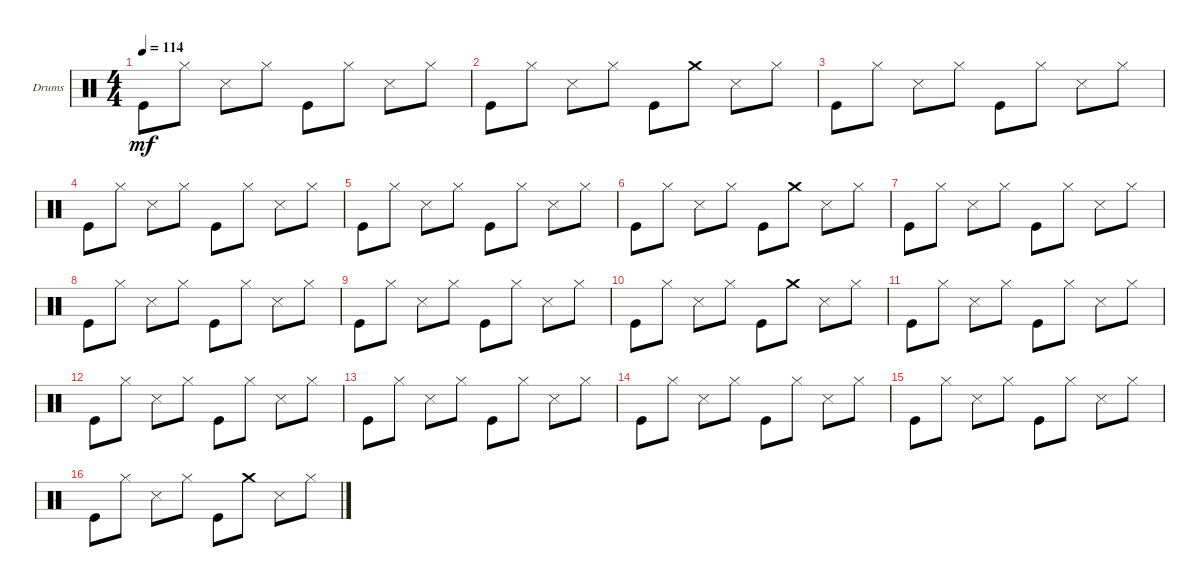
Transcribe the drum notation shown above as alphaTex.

\defaultSystemsLayout 4
\bracketExtendMode groupsimilarinstruments
\firstSystemTrackNameOrientation horizontal
\otherSystemsTrackNameOrientation horizontal
\track ("Drumkit" "Drums") {instrument percussion}
\staff {score}
\articulation defaults
\ts (4 4)
\tempo 114
\clef neutral
\scale
0.333333
\ks c "Kick (hit)".8{dy mf} "Hi-Hat (closed)".8 "Snare (side stick) 3".8 "Hi-Hat (closed)".8 "Kick (hit)".8 "Hi-Hat (closed)".8 "Snare (side stick) 3".8 "Hi-Hat (closed)".8
|
"Kick (hit)".8 "Hi-Hat (closed)".8 "Snare (side stick) 3".8 "Hi-Hat (closed)".8 "Kick (hit)".8 "Crash medium (hit)".8 "Snare (side stick) 3".8 "Hi-Hat (closed)".8 |
"Kick (hit)".8 "Hi-Hat (closed)".8 "Snare (side stick) 3".8 "Hi-Hat (closed)".8 "Kick (hit)".8 "Hi-Hat (closed)".8 "Snare (side stick) 3".8 "Hi-Hat (closed)".8 |
"Kick (hit)".8 "Hi-Hat (closed)".8 "Snare (side stick) 3".8 "Hi-Hat (closed)".8 "Kick (hit)".8 "Hi-Hat (closed)".8 "Snare (side stick) 3".8 "Hi-Hat (closed)".8 |
"Kick (hit)".8 "Hi-Hat (closed)".8 "Snare (side stick) 3".8 "Hi-Hat (closed)".8 "Kick (hit)".8 "Hi-Hat (closed)".8 "Snare (side stick) 3".8 "Hi-Hat (closed)".8 |
"Kick (hit)".8 "Hi-Hat (closed)".8 "Snare (side stick) 3".8 "Hi-Hat (closed)".8 "Kick (hit)".8 "Crash medium (hit)".8 "Snare (side stick) 3".8 "Hi-Hat (closed)".8 |
"Kick (hit)".8 "Hi-Hat (closed)".8 "Snare (side stick) 3".8 "Hi-Hat (closed)".8 "Kick (hit)".8 "Hi-Hat (closed)".8 "Snare (side stick) 3".8 "Hi-Hat (closed)".8 |
"Kick (hit)".8 "Hi-Hat (closed)".8 "Snare (side stick) 3".8 "Hi-Hat (closed)".8 "Kick (hit)".8 "Hi-Hat (closed)".8 "Snare (side stick) 3".8 "Hi-Hat (closed)".8 |
"Kick (hit)".8 "Hi-Hat (closed)".8 "Snare (side stick) 3".8 "Hi-Hat (closed)".8 "Kick (hit)".8 "Hi-Hat (closed)".8 "Snare (side stick) 3".8 "Hi-Hat (closed)".8 |
"Kick (hit)".8 "Hi-Hat (closed)".8 "Snare (side stick) 3".8 "Hi-Hat (closed)".8 "Kick (hit)".8 "Crash medium (hit)".8 "Snare (side stick) 3".8 "Hi-Hat (closed)".8 |
"Kick (hit)".8 "Hi-Hat (closed)".8 "Snare (side stick) 3".8 "Hi-Hat (closed)".8 "Kick (hit)".8 "Hi-Hat (closed)".8 "Snare (side stick) 3".8 "Hi-Hat (closed)".8 |
"Kick (hit)".8 "Hi-Hat (closed)".8 "Snare (side stick) 3".8 "Hi-Hat (closed)".8 "Kick (hit)".8 "Hi-Hat (closed)".8 "Snare (side stick) 3".8 "Hi-Hat (closed)".8 |
"Kick (hit)".8 "Hi-Hat (closed)".8 "Snare (side stick) 3".8 "Hi-Hat (closed)".8 "Kick (hit)".8 "Hi-Hat (closed)".8 "Snare (side stick) 3".8 "Hi-Hat (closed)".8 |
"Kick (hit)".8 "Hi-Hat (closed)".8 "Snare (side stick) 3".8 "Hi-Hat (closed)".8 "Kick (hit)".8 "Hi-Hat (closed)".8 "Snare (side stick) 3".8 "Hi-Hat (closed)".8 |
"Kick (hit)".8 "Hi-Hat (closed)".8 "Snare (side stick) 3".8 "Hi-Hat (closed)".8 "Kick (hit)".8 "Hi-Hat (closed)".8 "Snare (side stick) 3".8 "Hi-Hat (closed)".8 |
"Kick (hit)".8 "Hi-Hat (closed)".8 "Snare (side stick) 3".8 "Hi-Hat (closed)".8 "Kick (hit)".8 "Crash medium (hit)".8 "Snare (side stick) 3".8 "Hi-Hat (closed)".8
